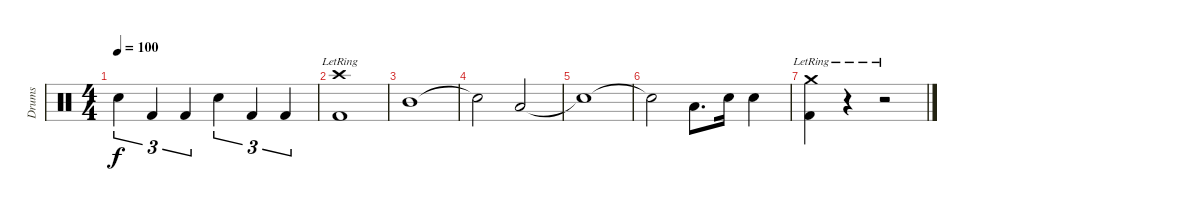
\track ("Drums" "Drums") {instrument percussion}
\staff {score}
\articulation defaults
\ts (4 4)
\tempo 100
\clef neutral
\ks c "Snare (hit) 2".4{tu (3 2) dy f} "Kick (hit) 2".4{tu (3 2)} "Kick (hit) 2".4{tu (3 2)} "Snare (hit) 2".4{tu (3 2)} "Kick (hit) 2".4{tu (3 2)} "Kick (hit) 2".4{tu (3 2)}
|
("Crash high (hit)"{lr} "Kick (hit) 2").1 |
"Mid Tom (hit)".1 |
"Snare (hit)"{t}.2 "Low Tom (hit)".2 |
"Snare (hit)"{t}.1 |
"Snare (hit)"{t}.2 "Low Tom (hit)".8{d} "Snare (hit) 2".16 "Snare (hit) 2".4 |
("Crash medium (hit)"{lr} "Kick (hit) 2").4 r.4 r.2
